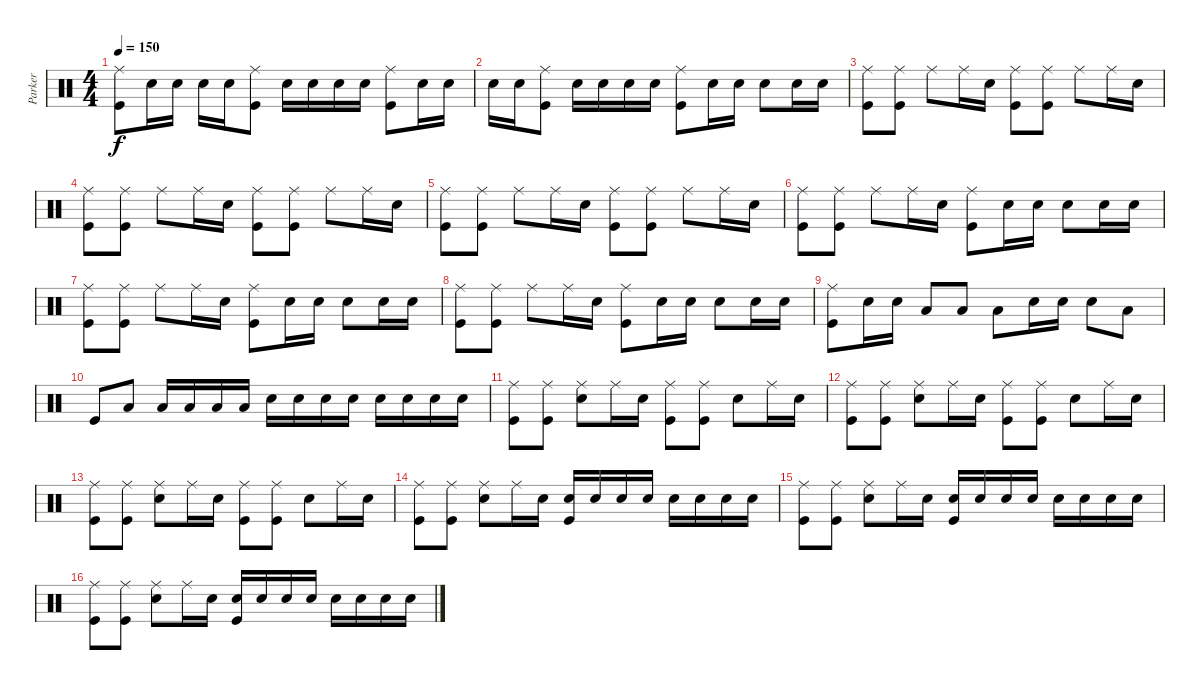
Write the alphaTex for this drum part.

\track ("Parker" "Parker") {instrument percussion}
\staff {score}
\articulation defaults
\ts (4 4)
\tempo 150
\clef neutral
\ks c
("Ride (middle)" "Kick (hit)").8{dy f} "Electric Snare (hit)".16 "Electric Snare (hit)".16 "Electric Snare (hit)".16 "Electric Snare (hit)".16 ("Ride (middle)" "Kick (hit)").8 "Electric Snare (hit)".16 "Electric Snare (hit)".16 "Electric Snare (hit)".16 "Electric Snare (hit)".16 ("Ride (middle)" "Kick (hit)").8 "Electric Snare (hit)".16 "Electric Snare (hit)".16 |
"Electric Snare (hit)".16 "Electric Snare (hit)".16 ("Ride (middle)" "Kick (hit)").8 "Electric Snare (hit)".16 "Electric Snare (hit)".16 "Electric Snare (hit)".16 "Electric Snare (hit)".16 ("Ride (middle)" "Kick (hit)").8 "Electric Snare (hit)".16 "Electric Snare (hit)".16 "Electric Snare (hit)".8 "Electric Snare (hit)".16 "Electric Snare (hit)".16 |
("Ride (middle)" "Kick (hit)").8 ("Ride (middle)" "Kick (hit)").8 "Ride (middle)".8 "Ride (middle)".16 "Electric Snare (hit)".16 ("Ride (middle)" "Kick (hit)").8 ("Ride (middle)" "Kick (hit)").8 "Ride (middle)".8 "Ride (middle)".16 "Electric Snare (hit)".16 |
("Ride (middle)" "Kick (hit)").8 ("Ride (middle)" "Kick (hit)").8 "Ride (middle)".8 "Ride (middle)".16 "Electric Snare (hit)".16 ("Ride (middle)" "Kick (hit)").8 ("Ride (middle)" "Kick (hit)").8 "Ride (middle)".8 "Ride (middle)".16 "Electric Snare (hit)".16 |
("Ride (middle)" "Kick (hit)").8 ("Ride (middle)" "Kick (hit)").8 "Ride (middle)".8 "Ride (middle)".16 "Electric Snare (hit)".16 ("Ride (middle)" "Kick (hit)").8 ("Ride (middle)" "Kick (hit)").8 "Ride (middle)".8 "Ride (middle)".16 "Electric Snare (hit)".16 |
("Ride (middle)" "Kick (hit)").8 ("Ride (middle)" "Kick (hit)").8 "Ride (middle)".8 "Ride (middle)".16 "Electric Snare (hit)".16 ("Ride (middle)" "Kick (hit)").8 "Electric Snare (hit)".16 "Electric Snare (hit)".16 "Electric Snare (hit)".8 "Electric Snare (hit)".16 "Electric Snare (hit)".16 |
("Ride (middle)" "Kick (hit)").8 ("Ride (middle)" "Kick (hit)").8 "Ride (middle)".8 "Ride (middle)".16 "Electric Snare (hit)".16 ("Ride (middle)" "Kick (hit)").8 "Electric Snare (hit)".16 "Electric Snare (hit)".16 "Electric Snare (hit)".8 "Electric Snare (hit)".16 "Electric Snare (hit)".16 |
("Ride (middle)" "Kick (hit)").8 ("Ride (middle)" "Kick (hit)").8 "Ride (middle)".8 "Ride (middle)".16 "Electric Snare (hit)".16 ("Ride (middle)" "Kick (hit)").8 "Electric Snare (hit)".16 "Electric Snare (hit)".16 "Electric Snare (hit)".8 "Electric Snare (hit)".16 "Electric Snare (hit)".16 |
("Ride (middle)" "Kick (hit)").8 "Electric Snare (hit)".16 "Electric Snare (hit)".16 "Low Tom (hit)".8 "Low Tom (hit)".8 "Low Tom (hit)".8 "Electric Snare (hit)".16 "Electric Snare (hit)".16 "Electric Snare (hit)".8 "Low Tom (hit)".8 |
"Kick (hit)".8 "Low Tom (hit)".8 "Low Tom (hit)".16 "Low Tom (hit)".16 "Low Tom (hit)".16 "Low Tom (hit)".16 "Electric Snare (hit)".16 "Electric Snare (hit)".16 "Electric Snare (hit)".16 "Electric Snare (hit)".16 "Electric Snare (hit)".16 "Electric Snare (hit)".16 "Electric Snare (hit)".16 "Electric Snare (hit)".16 |
("Ride (middle)" "Kick (hit)").8 ("Ride (middle)" "Kick (hit)").8 ("Ride (middle)" "Electric Snare (hit)").8 "Ride (middle)".16 "Electric Snare (hit)".16 ("Ride (middle)" "Kick (hit)").8 ("Ride (middle)" "Kick (hit)").8 "Electric Snare (hit)".8 "Ride (middle)".16 "Electric Snare (hit)".16 |
("Ride (middle)" "Kick (hit)").8 ("Ride (middle)" "Kick (hit)").8 ("Ride (middle)" "Electric Snare (hit)").8 "Ride (middle)".16 "Electric Snare (hit)".16 ("Ride (middle)" "Kick (hit)").8 ("Ride (middle)" "Kick (hit)").8 "Electric Snare (hit)".8 "Ride (middle)".16 "Electric Snare (hit)".16 |
("Ride (middle)" "Kick (hit)").8 ("Ride (middle)" "Kick (hit)").8 ("Ride (middle)" "Electric Snare (hit)").8 "Ride (middle)".16 "Electric Snare (hit)".16 ("Ride (middle)" "Kick (hit)").8 ("Ride (middle)" "Kick (hit)").8 "Electric Snare (hit)".8 "Ride (middle)".16 "Electric Snare (hit)".16 |
("Ride (middle)" "Kick (hit)").8 ("Ride (middle)" "Kick (hit)").8 ("Ride (middle)" "Electric Snare (hit)").8 "Ride (middle)".16 "Electric Snare (hit)".16 ("Electric Snare (hit)" "Kick (hit)").16 "Electric Snare (hit)".16 "Electric Snare (hit)".16 "Electric Snare (hit)".16 "Electric Snare (hit)".16 "Electric Snare (hit)".16 "Electric Snare (hit)".16 "Electric Snare (hit)".16 |
("Ride (middle)" "Kick (hit)").8 ("Ride (middle)" "Kick (hit)").8 ("Ride (middle)" "Electric Snare (hit)").8 "Ride (middle)".16 "Electric Snare (hit)".16 ("Electric Snare (hit)" "Kick (hit)").16 "Electric Snare (hit)".16 "Electric Snare (hit)".16 "Electric Snare (hit)".16 "Electric Snare (hit)".16 "Electric Snare (hit)".16 "Electric Snare (hit)".16 "Electric Snare (hit)".16 |
("Ride (middle)" "Kick (hit)").8 ("Ride (middle)" "Kick (hit)").8 ("Ride (middle)" "Electric Snare (hit)").8 "Ride (middle)".16 "Electric Snare (hit)".16 ("Electric Snare (hit)" "Kick (hit)").16 "Electric Snare (hit)".16 "Electric Snare (hit)".16 "Electric Snare (hit)".16 "Electric Snare (hit)".16 "Electric Snare (hit)".16 "Electric Snare (hit)".16 "Electric Snare (hit)".16
